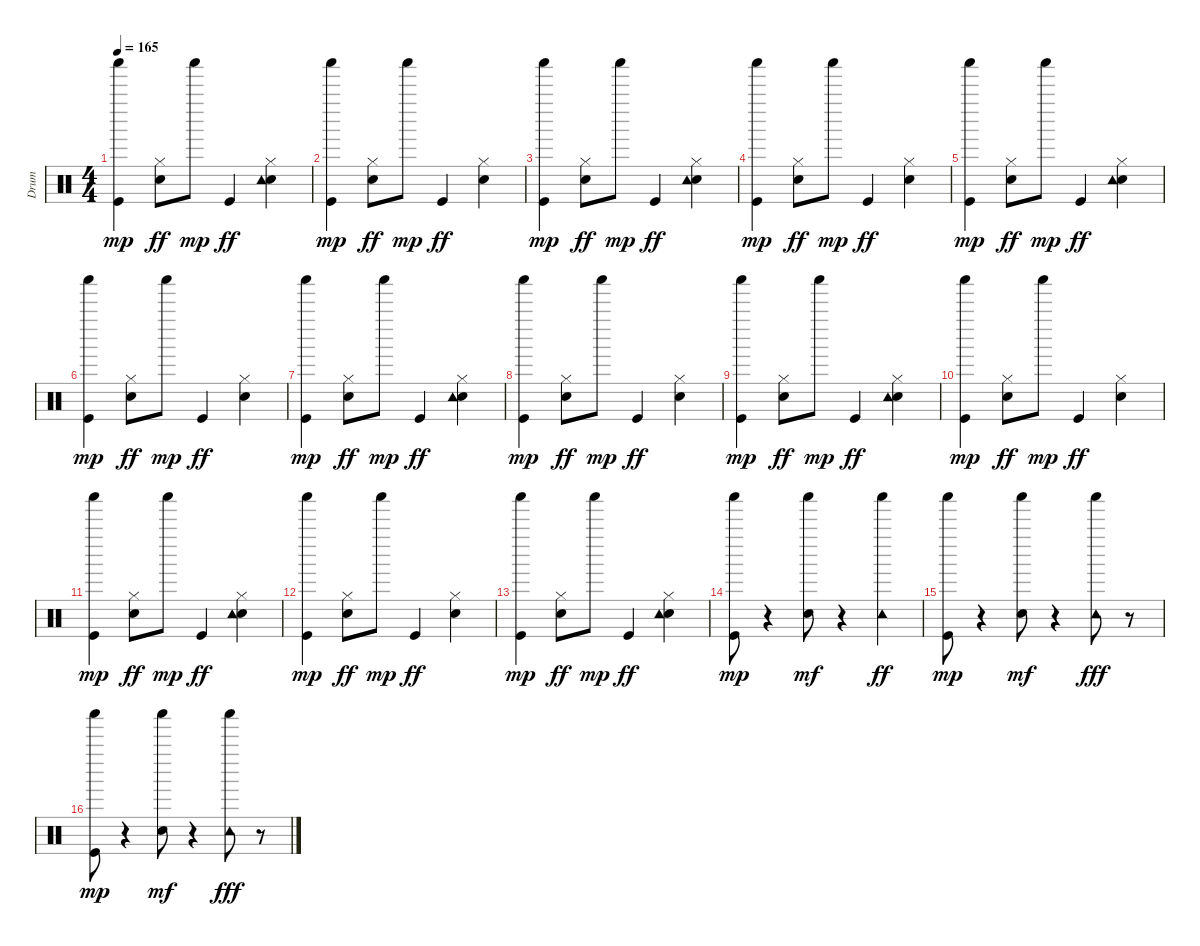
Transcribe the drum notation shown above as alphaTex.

\track ("Drum" "Drum") {instrument percussion}
\staff {score}
\articulation defaults
\ts (4 4)
\tempo 165
\clef neutral
\ks c
("Kick (hit)" "Shaker (hit)").4{dy mp} ("Electric Snare (hit)" "Hi-Hat (closed)").8{dy ff} "Shaker (hit)".8{dy mp} "Kick (hit)".4{dy ff} ("Electric Snare (hit)" "Hi-Hat (closed)" "Tambourine (hit)").4 |
("Kick (hit)" "Shaker (hit)").4{dy mp} ("Electric Snare (hit)" "Hi-Hat (closed)").8{dy ff} "Shaker (hit)".8{dy mp} "Kick (hit)".4{dy ff} ("Electric Snare (hit)" "Hi-Hat (closed)").4 |
("Kick (hit)" "Shaker (hit)").4{dy mp} ("Electric Snare (hit)" "Hi-Hat (closed)").8{dy ff} "Shaker (hit)".8{dy mp} "Kick (hit)".4{dy ff} ("Electric Snare (hit)" "Hi-Hat (closed)" "Tambourine (hit)").4 |
("Kick (hit)" "Shaker (hit)").4{dy mp} ("Electric Snare (hit)" "Hi-Hat (closed)").8{dy ff} "Shaker (hit)".8{dy mp} "Kick (hit)".4{dy ff} ("Electric Snare (hit)" "Hi-Hat (closed)").4 |
("Kick (hit)" "Shaker (hit)").4{dy mp} ("Electric Snare (hit)" "Hi-Hat (closed)").8{dy ff} "Shaker (hit)".8{dy mp} "Kick (hit)".4{dy ff} ("Electric Snare (hit)" "Hi-Hat (closed)" "Tambourine (hit)").4 |
("Kick (hit)" "Shaker (hit)").4{dy mp} ("Electric Snare (hit)" "Hi-Hat (closed)").8{dy ff} "Shaker (hit)".8{dy mp} "Kick (hit)".4{dy ff} ("Electric Snare (hit)" "Hi-Hat (closed)").4 |
("Kick (hit)" "Shaker (hit)").4{dy mp} ("Electric Snare (hit)" "Hi-Hat (closed)").8{dy ff} "Shaker (hit)".8{dy mp} "Kick (hit)".4{dy ff} ("Electric Snare (hit)" "Hi-Hat (closed)" "Tambourine (hit)").4 |
("Kick (hit)" "Shaker (hit)").4{dy mp} ("Electric Snare (hit)" "Hi-Hat (closed)").8{dy ff} "Shaker (hit)".8{dy mp} "Kick (hit)".4{dy ff} ("Electric Snare (hit)" "Hi-Hat (closed)").4 |
("Kick (hit)" "Shaker (hit)").4{dy mp} ("Electric Snare (hit)" "Hi-Hat (closed)").8{dy ff} "Shaker (hit)".8{dy mp} "Kick (hit)".4{dy ff} ("Electric Snare (hit)" "Hi-Hat (closed)" "Tambourine (hit)").4 |
("Kick (hit)" "Shaker (hit)").4{dy mp} ("Electric Snare (hit)" "Hi-Hat (closed)").8{dy ff} "Shaker (hit)".8{dy mp} "Kick (hit)".4{dy ff} ("Electric Snare (hit)" "Hi-Hat (closed)").4 |
("Kick (hit)" "Shaker (hit)").4{dy mp} ("Electric Snare (hit)" "Hi-Hat (closed)").8{dy ff} "Shaker (hit)".8{dy mp} "Kick (hit)".4{dy ff} ("Electric Snare (hit)" "Hi-Hat (closed)" "Tambourine (hit)").4 |
("Kick (hit)" "Shaker (hit)").4{dy mp} ("Electric Snare (hit)" "Hi-Hat (closed)").8{dy ff} "Shaker (hit)".8{dy mp} "Kick (hit)".4{dy ff} ("Electric Snare (hit)" "Hi-Hat (closed)").4 |
("Kick (hit)" "Shaker (hit)").4{dy mp} ("Electric Snare (hit)" "Hi-Hat (closed)").8{dy ff} "Shaker (hit)".8{dy mp} "Kick (hit)".4{dy ff} ("Electric Snare (hit)" "Hi-Hat (closed)" "Tambourine (hit)").4 |
("Kick (hit)" "Shaker (hit)").8{dy mp} r.4 ("Electric Snare (hit)" "Shaker (hit)").8{dy mf} r.4 ("Shaker (hit)" "Tambourine (hit)").4{dy ff} |
("Kick (hit)" "Shaker (hit)").8{dy mp} r.4 ("Electric Snare (hit)" "Shaker (hit)").8{dy mf} r.4 ("Shaker (hit)" "Tambourine (hit)").8{dy fff} r.8 |
("Kick (hit)" "Shaker (hit)").8{dy mp} r.4 ("Electric Snare (hit)" "Shaker (hit)").8{dy mf} r.4 ("Shaker (hit)" "Tambourine (hit)").8{dy fff} r.8
